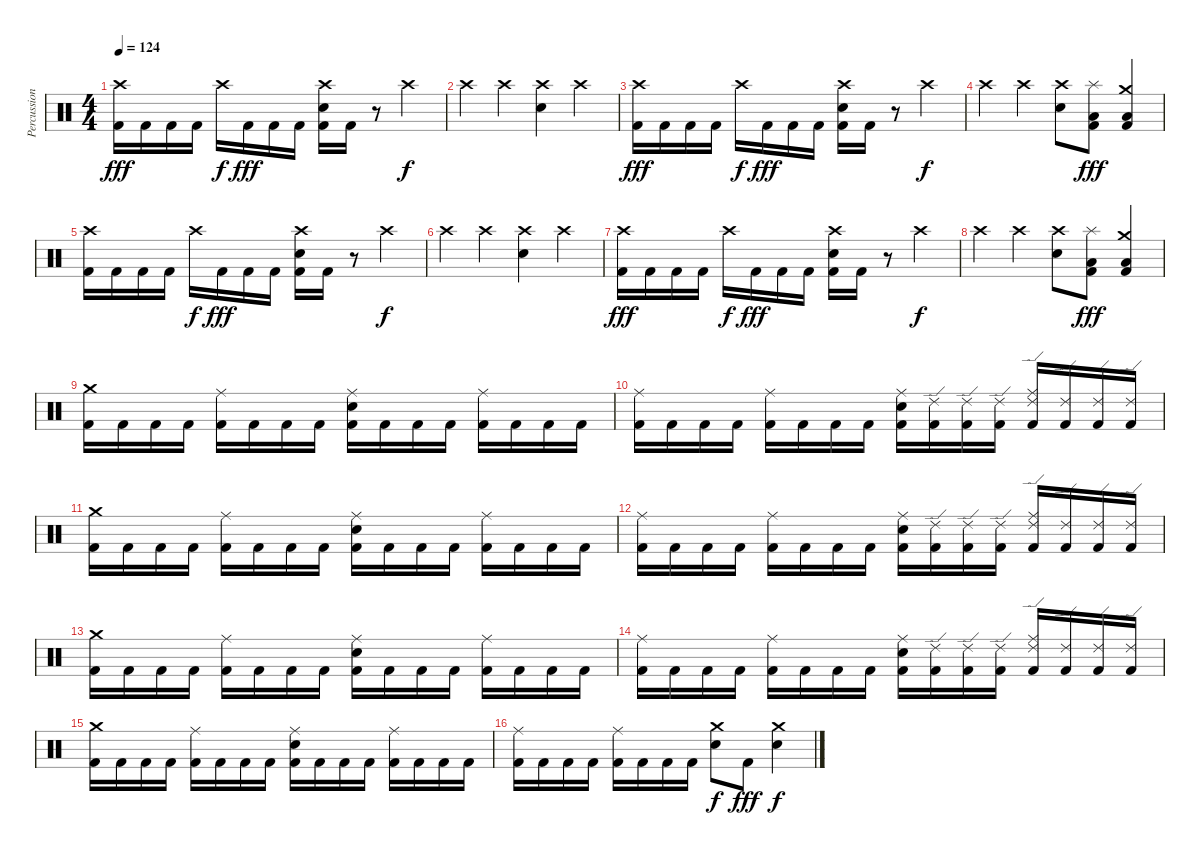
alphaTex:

\track ("Percussion" "Percussion") {instrument percussion}
\staff {score}
\articulation defaults
\ts (4 4)
\tempo 124
\clef neutral
\ks c
("Crash high (hit)" "Kick (hit) 2").16{dy fff} "Kick (hit) 2".16 "Kick (hit) 2".16 "Kick (hit) 2".16 "Crash high (hit)".16{dy f} "Kick (hit) 2".16{dy fff} "Kick (hit) 2".16 "Kick (hit) 2".16 ("Crash high (hit)" "Snare (hit) 2" "Kick (hit) 2").16 "Kick (hit) 2".16 r.8 "Crash high (hit)".4{dy f} |
"Crash high (hit)".4 "Crash high (hit)".4 ("Crash high (hit)" "Snare (hit) 2").4 "Crash high (hit)".4 |
("Crash high (hit)" "Kick (hit) 2").16{dy fff} "Kick (hit) 2".16 "Kick (hit) 2".16 "Kick (hit) 2".16 "Crash high (hit)".16{dy f} "Kick (hit) 2".16{dy fff} "Kick (hit) 2".16 "Kick (hit) 2".16 ("Crash high (hit)" "Snare (hit) 2" "Kick (hit) 2").16 "Kick (hit) 2".16 r.8 "Crash high (hit)".4{dy f} |
"Crash high (hit)".4 "Crash high (hit)".4 ("Crash high (hit)" "Snare (hit) 2").8 ("Splash (hit)" "Low Tom (hit)" "Kick (hit) 2").8{dy fff} ("Crash medium (hit)" "Low Floor Tom (hit)" "Kick (hit) 2").4 |
("Crash high (hit)" "Kick (hit) 2").16 "Kick (hit) 2".16 "Kick (hit) 2".16 "Kick (hit) 2".16 "Crash high (hit)".16{dy f} "Kick (hit) 2".16{dy fff} "Kick (hit) 2".16 "Kick (hit) 2".16 ("Crash high (hit)" "Snare (hit) 2" "Kick (hit) 2").16 "Kick (hit) 2".16 r.8 "Crash high (hit)".4{dy f} |
"Crash high (hit)".4 "Crash high (hit)".4 ("Crash high (hit)" "Snare (hit) 2").4 "Crash high (hit)".4 |
("Crash high (hit)" "Kick (hit) 2").16{dy fff} "Kick (hit) 2".16 "Kick (hit) 2".16 "Kick (hit) 2".16 "Crash high (hit)".16{dy f} "Kick (hit) 2".16{dy fff} "Kick (hit) 2".16 "Kick (hit) 2".16 ("Crash high (hit)" "Snare (hit) 2" "Kick (hit) 2").16 "Kick (hit) 2".16 r.8 "Crash high (hit)".4{dy f} |
"Crash high (hit)".4 "Crash high (hit)".4 ("Crash high (hit)" "Snare (hit) 2").8 ("Splash (hit)" "Low Tom (hit)" "Kick (hit) 2").8{dy fff} ("Crash medium (hit)" "Low Floor Tom (hit)" "Kick (hit) 2").4 |
("Crash medium (hit)" "Kick (hit) 2").16 "Kick (hit) 2".16 "Kick (hit) 2".16 "Kick (hit) 2".16 ("Ride (middle)" "Kick (hit) 2").16 "Kick (hit) 2".16 "Kick (hit) 2".16 "Kick (hit) 2".16 ("Ride (middle)" "Snare (hit) 2" "Kick (hit) 2").16 "Kick (hit) 2".16 "Kick (hit) 2".16 "Kick (hit) 2".16 ("Ride (middle)" "Kick (hit) 2").16 "Kick (hit) 2".16 "Kick (hit) 2".16 "Kick (hit) 2".16 |
("Ride (middle)" "Kick (hit) 2").16 "Kick (hit) 2".16 "Kick (hit) 2".16 "Kick (hit) 2".16 ("Ride (middle)" "Kick (hit) 2").16 "Kick (hit) 2".16 "Kick (hit) 2".16 "Kick (hit) 2".16 ("Ride (middle)" "Snare (hit) 2" "Kick (hit) 2").16 ("Ride (edge) 2" "Kick (hit) 2").16 ("Ride (edge) 2" "Kick (hit) 2").16 ("Ride (edge) 2" "Kick (hit) 2").16 ("Ride (middle)" "Ride (edge) 2" "Kick (hit) 2").16 ("Ride (edge) 2" "Kick (hit) 2").16 ("Ride (edge) 2" "Kick (hit) 2").16 ("Ride (edge) 2" "Kick (hit) 2").16 |
("Crash medium (hit)" "Kick (hit) 2").16 "Kick (hit) 2".16 "Kick (hit) 2".16 "Kick (hit) 2".16 ("Ride (middle)" "Kick (hit) 2").16 "Kick (hit) 2".16 "Kick (hit) 2".16 "Kick (hit) 2".16 ("Ride (middle)" "Snare (hit) 2" "Kick (hit) 2").16 "Kick (hit) 2".16 "Kick (hit) 2".16 "Kick (hit) 2".16 ("Ride (middle)" "Kick (hit) 2").16 "Kick (hit) 2".16 "Kick (hit) 2".16 "Kick (hit) 2".16 |
("Ride (middle)" "Kick (hit) 2").16 "Kick (hit) 2".16 "Kick (hit) 2".16 "Kick (hit) 2".16 ("Ride (middle)" "Kick (hit) 2").16 "Kick (hit) 2".16 "Kick (hit) 2".16 "Kick (hit) 2".16 ("Ride (middle)" "Snare (hit) 2" "Kick (hit) 2").16 ("Ride (edge) 2" "Kick (hit) 2").16 ("Ride (edge) 2" "Kick (hit) 2").16 ("Ride (edge) 2" "Kick (hit) 2").16 ("Ride (middle)" "Ride (edge) 2" "Kick (hit) 2").16 ("Ride (edge) 2" "Kick (hit) 2").16 ("Ride (edge) 2" "Kick (hit) 2").16 ("Ride (edge) 2" "Kick (hit) 2").16 |
("Crash medium (hit)" "Kick (hit) 2").16 "Kick (hit) 2".16 "Kick (hit) 2".16 "Kick (hit) 2".16 ("Ride (middle)" "Kick (hit) 2").16 "Kick (hit) 2".16 "Kick (hit) 2".16 "Kick (hit) 2".16 ("Ride (middle)" "Snare (hit) 2" "Kick (hit) 2").16 "Kick (hit) 2".16 "Kick (hit) 2".16 "Kick (hit) 2".16 ("Ride (middle)" "Kick (hit) 2").16 "Kick (hit) 2".16 "Kick (hit) 2".16 "Kick (hit) 2".16 |
("Ride (middle)" "Kick (hit) 2").16 "Kick (hit) 2".16 "Kick (hit) 2".16 "Kick (hit) 2".16 ("Ride (middle)" "Kick (hit) 2").16 "Kick (hit) 2".16 "Kick (hit) 2".16 "Kick (hit) 2".16 ("Ride (middle)" "Snare (hit) 2" "Kick (hit) 2").16 ("Ride (edge) 2" "Kick (hit) 2").16 ("Ride (edge) 2" "Kick (hit) 2").16 ("Ride (edge) 2" "Kick (hit) 2").16 ("Ride (middle)" "Ride (edge) 2" "Kick (hit) 2").16 ("Ride (edge) 2" "Kick (hit) 2").16 ("Ride (edge) 2" "Kick (hit) 2").16 ("Ride (edge) 2" "Kick (hit) 2").16 |
("Crash medium (hit)" "Kick (hit) 2").16 "Kick (hit) 2".16 "Kick (hit) 2".16 "Kick (hit) 2".16 ("Ride (middle)" "Kick (hit) 2").16 "Kick (hit) 2".16 "Kick (hit) 2".16 "Kick (hit) 2".16 ("Ride (middle)" "Snare (hit) 2" "Kick (hit) 2").16 "Kick (hit) 2".16 "Kick (hit) 2".16 "Kick (hit) 2".16 ("Ride (middle)" "Kick (hit) 2").16 "Kick (hit) 2".16 "Kick (hit) 2".16 "Kick (hit) 2".16 |
("Ride (middle)" "Kick (hit) 2").16 "Kick (hit) 2".16 "Kick (hit) 2".16 "Kick (hit) 2".16 ("Ride (middle)" "Kick (hit) 2").16 "Kick (hit) 2".16 "Kick (hit) 2".16 "Kick (hit) 2".16 ("Crash medium (hit)" "Snare (hit) 2").8{dy f} "Kick (hit) 2".8{dy fff} ("Crash medium (hit)" "Snare (hit) 2").4{dy f}
